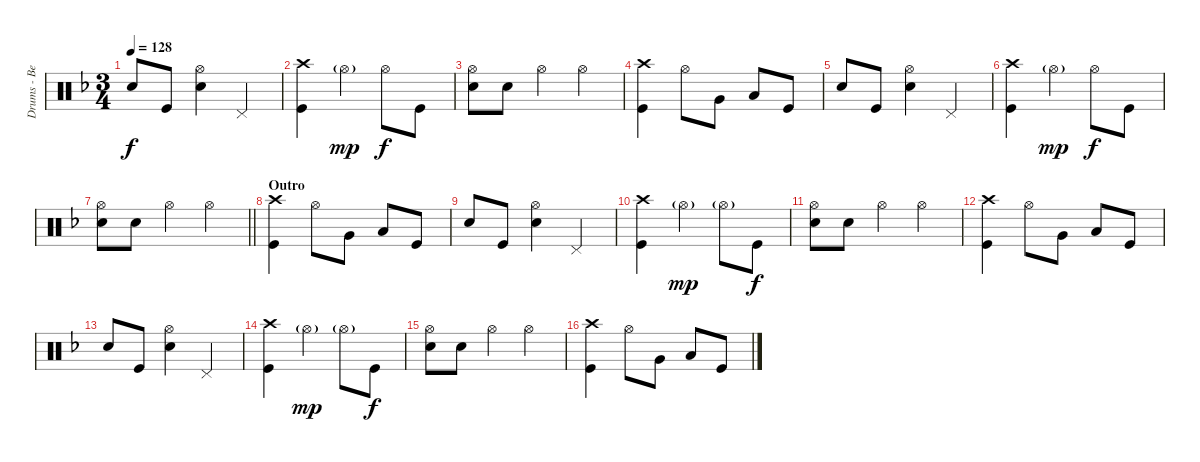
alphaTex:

\track ("Drums - Ben Johnston" "Drums - Be") {instrument percussion}
\staff {score}
\articulation defaults
\ts (3 4)
\tempo 128
\clef neutral
\ks dminor "Snare (hit) 2".8{dy f} "Kick (hit)".8
("Hi-Hat (open)" "Snare (hit) 2").4 "Pedal Hi-Hat (hit)".4 |
("Crash high (hit)" "Kick (hit)").4 "Hi-Hat (open)"{g}.4{dy mp} "Hi-Hat (open)".8{dy f} "Kick (hit)".8 |
("Hi-Hat (open)" "Snare (hit) 2").8 "Snare (hit) 2".8 "Hi-Hat (open)".4 "Hi-Hat (open)".4 |
("Crash high (hit)" "Kick (hit)").4 "Hi-Hat (open)".8 "Very Low Tom (hit)".8 "Low Floor Tom (hit)".8 "Kick (hit)".8 |
"Snare (hit) 2".8 "Kick (hit)".8 ("Hi-Hat (open)" "Snare (hit) 2").4 "Pedal Hi-Hat (hit)".4 |
("Crash high (hit)" "Kick (hit)").4 "Hi-Hat (open)"{g}.4{dy mp} "Hi-Hat (open)".8{dy f} "Kick (hit)".8 |
\barLineRight lightlight
("Hi-Hat (open)" "Snare (hit) 2").8 "Snare (hit) 2".8 "Hi-Hat (open)".4 "Hi-Hat (open)".4 |
\section ("" "Outro")
("Crash high (hit)" "Kick (hit)").4 "Hi-Hat (open)".8 "Very Low Tom (hit)".8 "Low Floor Tom (hit)".8 "Kick (hit)".8 |
"Snare (hit) 2".8 "Kick (hit)".8 ("Hi-Hat (open)" "Snare (hit) 2").4 "Pedal Hi-Hat (hit)".4 |
("Crash high (hit)" "Kick (hit)").4 "Hi-Hat (open)"{g}.4{dy mp} "Hi-Hat (open)"{g}.8 "Kick (hit)".8{dy f} |
("Hi-Hat (open)" "Snare (hit) 2").8 "Snare (hit) 2".8 "Hi-Hat (open)".4 "Hi-Hat (open)".4 |
("Crash high (hit)" "Kick (hit)").4 "Hi-Hat (open)".8 "Very Low Tom (hit)".8 "Low Floor Tom (hit)".8 "Kick (hit)".8 |
"Snare (hit) 2".8 "Kick (hit)".8 ("Hi-Hat (open)" "Snare (hit) 2").4 "Pedal Hi-Hat (hit)".4 |
("Crash high (hit)" "Kick (hit)").4 "Hi-Hat (open)"{g}.4{dy mp} "Hi-Hat (open)"{g}.8 "Kick (hit)".8{dy f} |
("Hi-Hat (open)" "Snare (hit) 2").8 "Snare (hit) 2".8 "Hi-Hat (open)".4 "Hi-Hat (open)".4 |
("Crash high (hit)" "Kick (hit)").4 "Hi-Hat (open)".8 "Very Low Tom (hit)".8 "Low Floor Tom (hit)".8 "Kick (hit)".8
